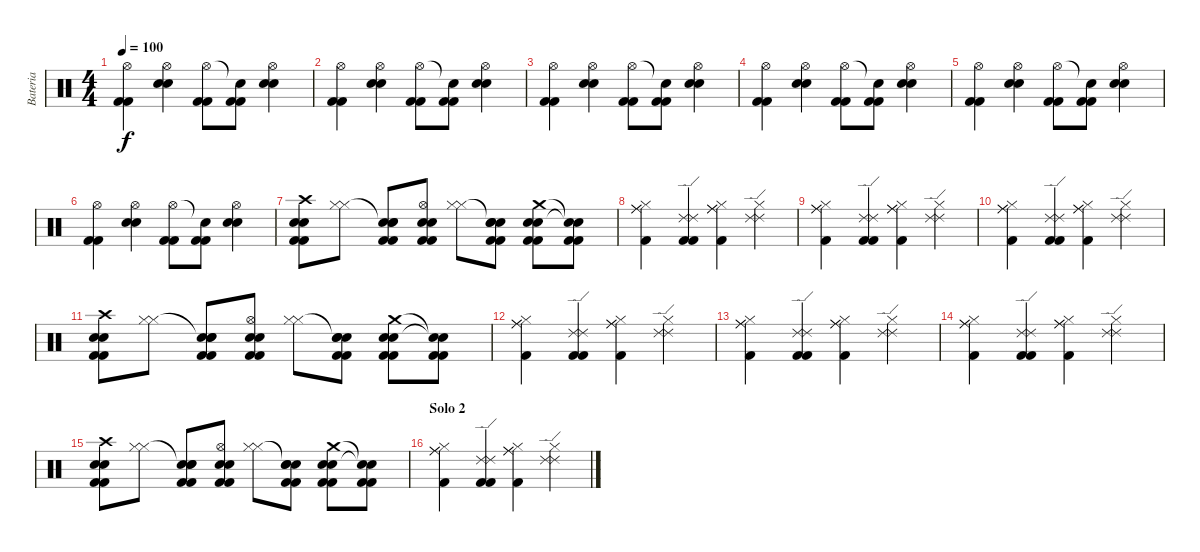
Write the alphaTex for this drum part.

\track ("Bateria" "Bateria") {instrument percussion}
\staff {score}
\articulation defaults
\ts (4 4)
\tempo 100
\clef neutral
\ks c
("Kick (hit) 2" "Kick (hit) 2" "Hi-Hat (open)").4{dy f} ("Electric Snare (hit)" "Electric Snare (hit)" "Hi-Hat (open)").4 ("Kick (hit) 2" "Kick (hit) 2" "Hi-Hat (open)").8 ("Kick (hit) 2" "Kick (hit) 2" "Snare (hit)"{t}).8 ("Electric Snare (hit)" "Electric Snare (hit)" "Hi-Hat (open)").4 |
("Kick (hit) 2" "Kick (hit) 2" "Hi-Hat (open)").4 ("Electric Snare (hit)" "Electric Snare (hit)" "Hi-Hat (open)").4 ("Kick (hit) 2" "Kick (hit) 2" "Hi-Hat (open)").8 ("Kick (hit) 2" "Kick (hit) 2" "Snare (hit)"{t}).8 ("Electric Snare (hit)" "Electric Snare (hit)" "Hi-Hat (open)").4 |
("Kick (hit) 2" "Kick (hit) 2" "Hi-Hat (open)").4 ("Electric Snare (hit)" "Electric Snare (hit)" "Hi-Hat (open)").4 ("Kick (hit) 2" "Kick (hit) 2" "Hi-Hat (open)").8 ("Kick (hit) 2" "Kick (hit) 2" "Snare (hit)"{t}).8 ("Electric Snare (hit)" "Electric Snare (hit)" "Hi-Hat (open)").4 |
("Kick (hit) 2" "Kick (hit) 2" "Hi-Hat (open)").4 ("Electric Snare (hit)" "Electric Snare (hit)" "Hi-Hat (open)").4 ("Kick (hit) 2" "Kick (hit) 2" "Hi-Hat (open)").8 ("Kick (hit) 2" "Kick (hit) 2" "Snare (hit)"{t}).8 ("Electric Snare (hit)" "Electric Snare (hit)" "Hi-Hat (open)").4 |
("Kick (hit) 2" "Kick (hit) 2" "Hi-Hat (open)").4 ("Electric Snare (hit)" "Electric Snare (hit)" "Hi-Hat (open)").4 ("Kick (hit) 2" "Kick (hit) 2" "Hi-Hat (open)").8 ("Kick (hit) 2" "Kick (hit) 2" "Snare (hit)"{t}).8 ("Electric Snare (hit)" "Electric Snare (hit)" "Hi-Hat (open)").4 |
("Kick (hit) 2" "Kick (hit) 2" "Hi-Hat (open)").4 ("Electric Snare (hit)" "Electric Snare (hit)" "Hi-Hat (open)").4 ("Kick (hit) 2" "Kick (hit) 2" "Hi-Hat (open)").8 ("Kick (hit) 2" "Kick (hit) 2" "Snare (hit)"{t}).8 ("Electric Snare (hit)" "Electric Snare (hit)" "Hi-Hat (open)").4 |
("Crash high (hit)" "Snare (hit) 2" "Snare (hit) 2" "Kick (hit) 2" "Kick (hit) 2").8 ("Hi-Hat (closed)" "Hi-Hat (closed)").8 ("Snare (hit)"{t} "Electric Snare (hit)" "Electric Snare (hit)" "Kick (hit) 2" "Kick (hit) 2").8 ("Hi-Hat (open)" "Snare (hit) 2" "Snare (hit) 2" "Kick (hit) 2" "Kick (hit) 2").8 ("Hi-Hat (closed)" "Hi-Hat (closed)").8 ("Snare (hit)"{t} "Electric Snare (hit)" "Electric Snare (hit)" "Kick (hit) 2" "Kick (hit) 2").8 ("Crash medium (hit)" "Snare (hit) 2" "Snare (hit) 2" "Kick (hit) 2" "Kick (hit) 2").8 ("Snare (hit)"{t} "Snare (hit) 2"{t} "Kick (hit) 2" "Kick (hit) 2").8 |
("Ride (middle)" "Ride (middle)" "Hi-Hat (closed)" "Kick (hit) 2").4 ("Kick (hit) 2" "Kick (hit) 2" "Ride (edge) 2" "Ride (edge) 2").4 ("Ride (middle)" "Ride (middle)" "Hi-Hat (closed)" "Kick (hit) 2").4 ("Ride (edge) 2" "Ride (edge) 2" "Hi-Hat (closed)").4 |
("Ride (middle)" "Ride (middle)" "Hi-Hat (closed)" "Kick (hit) 2").4 ("Kick (hit) 2" "Kick (hit) 2" "Ride (edge) 2" "Ride (edge) 2").4 ("Ride (middle)" "Ride (middle)" "Hi-Hat (closed)" "Kick (hit) 2").4 ("Ride (edge) 2" "Ride (edge) 2" "Hi-Hat (closed)").4 |
("Ride (middle)" "Ride (middle)" "Hi-Hat (closed)" "Kick (hit) 2").4 ("Kick (hit) 2" "Kick (hit) 2" "Ride (edge) 2" "Ride (edge) 2").4 ("Ride (middle)" "Ride (middle)" "Hi-Hat (closed)" "Kick (hit) 2").4 ("Ride (edge) 2" "Ride (edge) 2" "Hi-Hat (closed)").4 |
("Crash high (hit)" "Snare (hit) 2" "Snare (hit) 2" "Kick (hit) 2" "Kick (hit) 2").8 ("Hi-Hat (closed)" "Hi-Hat (closed)").8 ("Snare (hit)"{t} "Electric Snare (hit)" "Electric Snare (hit)" "Kick (hit) 2" "Kick (hit) 2").8 ("Hi-Hat (open)" "Snare (hit) 2" "Snare (hit) 2" "Kick (hit) 2" "Kick (hit) 2").8 ("Hi-Hat (closed)" "Hi-Hat (closed)").8 ("Snare (hit)"{t} "Electric Snare (hit)" "Electric Snare (hit)" "Kick (hit) 2" "Kick (hit) 2").8 ("Crash medium (hit)" "Snare (hit) 2" "Snare (hit) 2" "Kick (hit) 2" "Kick (hit) 2").8 ("Snare (hit)"{t} "Snare (hit) 2"{t} "Kick (hit) 2" "Kick (hit) 2").8 |
("Ride (middle)" "Ride (middle)" "Hi-Hat (closed)" "Kick (hit) 2").4 ("Kick (hit) 2" "Kick (hit) 2" "Ride (edge) 2" "Ride (edge) 2").4 ("Ride (middle)" "Ride (middle)" "Hi-Hat (closed)" "Kick (hit) 2").4 ("Ride (edge) 2" "Ride (edge) 2" "Hi-Hat (closed)").4 |
("Ride (middle)" "Ride (middle)" "Hi-Hat (closed)" "Kick (hit) 2").4 ("Kick (hit) 2" "Kick (hit) 2" "Ride (edge) 2" "Ride (edge) 2").4 ("Ride (middle)" "Ride (middle)" "Hi-Hat (closed)" "Kick (hit) 2").4 ("Ride (edge) 2" "Ride (edge) 2" "Hi-Hat (closed)").4 |
("Ride (middle)" "Ride (middle)" "Hi-Hat (closed)" "Kick (hit) 2").4 ("Kick (hit) 2" "Kick (hit) 2" "Ride (edge) 2" "Ride (edge) 2").4 ("Ride (middle)" "Ride (middle)" "Hi-Hat (closed)" "Kick (hit) 2").4 ("Ride (edge) 2" "Ride (edge) 2" "Hi-Hat (closed)").4 |
("Crash high (hit)" "Snare (hit) 2" "Snare (hit) 2" "Kick (hit) 2" "Kick (hit) 2").8 ("Hi-Hat (closed)" "Hi-Hat (closed)").8 ("Snare (hit)"{t} "Electric Snare (hit)" "Electric Snare (hit)" "Kick (hit) 2" "Kick (hit) 2").8 ("Hi-Hat (open)" "Snare (hit) 2" "Snare (hit) 2" "Kick (hit) 2" "Kick (hit) 2").8 ("Hi-Hat (closed)" "Hi-Hat (closed)").8 ("Snare (hit)"{t} "Electric Snare (hit)" "Electric Snare (hit)" "Kick (hit) 2" "Kick (hit) 2").8 ("Crash medium (hit)" "Snare (hit) 2" "Snare (hit) 2" "Kick (hit) 2" "Kick (hit) 2").8 ("Snare (hit)"{t} "Snare (hit) 2"{t} "Kick (hit) 2" "Kick (hit) 2").8 |
\section ("" "Solo 2")
("Ride (middle)" "Ride (middle)" "Hi-Hat (closed)" "Kick (hit) 2").4 ("Kick (hit) 2" "Kick (hit) 2" "Ride (edge) 2" "Ride (edge) 2").4 ("Ride (middle)" "Ride (middle)" "Hi-Hat (closed)" "Kick (hit) 2").4 ("Ride (edge) 2" "Ride (edge) 2" "Hi-Hat (closed)").4
